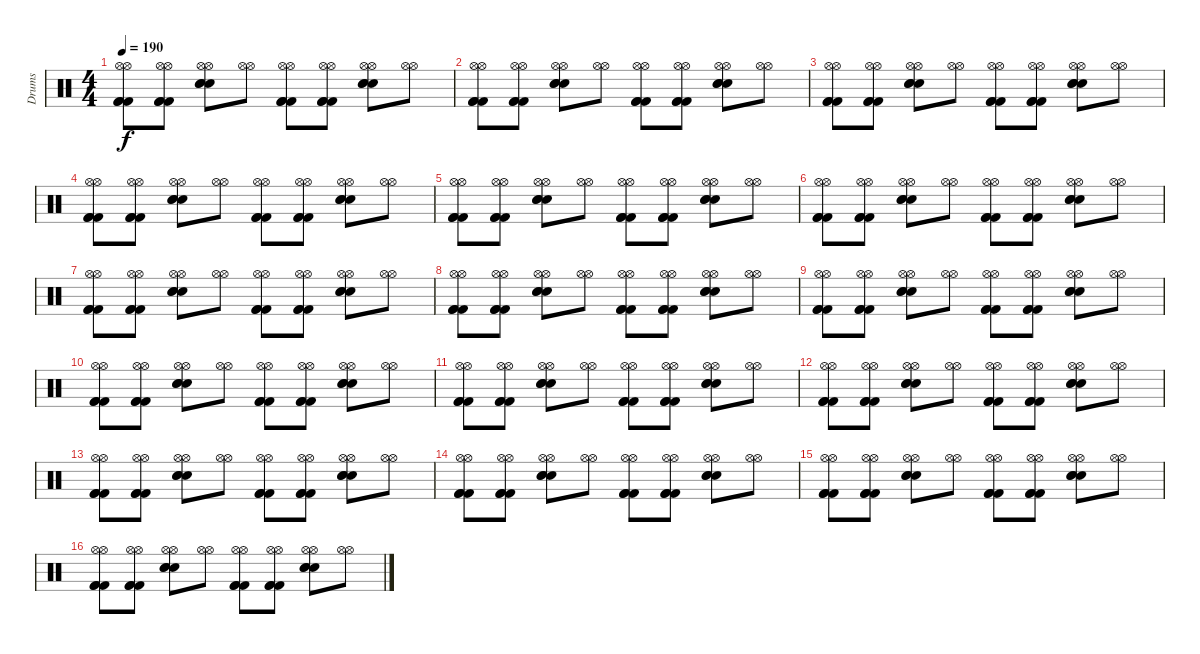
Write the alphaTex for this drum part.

\track ("Drums" "Drums") {instrument percussion}
\staff {score}
\articulation defaults
\ts (4 4)
\tempo 190
\clef neutral
\ks c
("Kick (hit) 2" "Kick (hit) 2" "Kick (hit) 2" "Hi-Hat (open)" "Hi-Hat (open)").8{dy f} ("Kick (hit) 2" "Kick (hit) 2" "Kick (hit) 2" "Hi-Hat (open)" "Hi-Hat (open)").8 ("Snare (hit) 2" "Snare (hit) 2" "Snare (hit) 2" "Hi-Hat (open)" "Hi-Hat (open)").8 ("Hi-Hat (open)" "Hi-Hat (open)").8 ("Kick (hit) 2" "Kick (hit) 2" "Kick (hit) 2" "Hi-Hat (open)" "Hi-Hat (open)").8 ("Kick (hit) 2" "Kick (hit) 2" "Kick (hit) 2" "Hi-Hat (open)" "Hi-Hat (open)").8 ("Snare (hit) 2" "Snare (hit) 2" "Snare (hit) 2" "Hi-Hat (open)" "Hi-Hat (open)").8 ("Hi-Hat (open)" "Hi-Hat (open)").8 |
("Kick (hit) 2" "Kick (hit) 2" "Kick (hit) 2" "Hi-Hat (open)" "Hi-Hat (open)").8 ("Kick (hit) 2" "Kick (hit) 2" "Kick (hit) 2" "Hi-Hat (open)" "Hi-Hat (open)").8 ("Snare (hit) 2" "Snare (hit) 2" "Snare (hit) 2" "Hi-Hat (open)" "Hi-Hat (open)").8 ("Hi-Hat (open)" "Hi-Hat (open)").8 ("Kick (hit) 2" "Kick (hit) 2" "Kick (hit) 2" "Hi-Hat (open)" "Hi-Hat (open)").8 ("Kick (hit) 2" "Kick (hit) 2" "Kick (hit) 2" "Hi-Hat (open)" "Hi-Hat (open)").8 ("Snare (hit) 2" "Snare (hit) 2" "Snare (hit) 2" "Hi-Hat (open)" "Hi-Hat (open)").8 ("Hi-Hat (open)" "Hi-Hat (open)").8 |
("Kick (hit) 2" "Kick (hit) 2" "Kick (hit) 2" "Hi-Hat (open)" "Hi-Hat (open)").8 ("Kick (hit) 2" "Kick (hit) 2" "Kick (hit) 2" "Hi-Hat (open)" "Hi-Hat (open)").8 ("Snare (hit) 2" "Snare (hit) 2" "Snare (hit) 2" "Hi-Hat (open)" "Hi-Hat (open)").8 ("Hi-Hat (open)" "Hi-Hat (open)").8 ("Kick (hit) 2" "Kick (hit) 2" "Kick (hit) 2" "Hi-Hat (open)" "Hi-Hat (open)").8 ("Kick (hit) 2" "Kick (hit) 2" "Kick (hit) 2" "Hi-Hat (open)" "Hi-Hat (open)").8 ("Snare (hit) 2" "Snare (hit) 2" "Snare (hit) 2" "Hi-Hat (open)" "Hi-Hat (open)").8 ("Hi-Hat (open)" "Hi-Hat (open)").8 |
("Kick (hit) 2" "Kick (hit) 2" "Kick (hit) 2" "Hi-Hat (open)" "Hi-Hat (open)").8 ("Kick (hit) 2" "Kick (hit) 2" "Kick (hit) 2" "Hi-Hat (open)" "Hi-Hat (open)").8 ("Snare (hit) 2" "Snare (hit) 2" "Snare (hit) 2" "Hi-Hat (open)" "Hi-Hat (open)").8 ("Hi-Hat (open)" "Hi-Hat (open)").8 ("Kick (hit) 2" "Kick (hit) 2" "Kick (hit) 2" "Hi-Hat (open)" "Hi-Hat (open)").8 ("Kick (hit) 2" "Kick (hit) 2" "Kick (hit) 2" "Hi-Hat (open)" "Hi-Hat (open)").8 ("Snare (hit) 2" "Snare (hit) 2" "Snare (hit) 2" "Hi-Hat (open)" "Hi-Hat (open)").8 ("Hi-Hat (open)" "Hi-Hat (open)").8 |
("Kick (hit) 2" "Kick (hit) 2" "Kick (hit) 2" "Hi-Hat (open)" "Hi-Hat (open)").8 ("Kick (hit) 2" "Kick (hit) 2" "Kick (hit) 2" "Hi-Hat (open)" "Hi-Hat (open)").8 ("Snare (hit) 2" "Snare (hit) 2" "Snare (hit) 2" "Hi-Hat (open)" "Hi-Hat (open)").8 ("Hi-Hat (open)" "Hi-Hat (open)").8 ("Kick (hit) 2" "Kick (hit) 2" "Kick (hit) 2" "Hi-Hat (open)" "Hi-Hat (open)").8 ("Kick (hit) 2" "Kick (hit) 2" "Kick (hit) 2" "Hi-Hat (open)" "Hi-Hat (open)").8 ("Snare (hit) 2" "Snare (hit) 2" "Snare (hit) 2" "Hi-Hat (open)" "Hi-Hat (open)").8 ("Hi-Hat (open)" "Hi-Hat (open)").8 |
("Kick (hit) 2" "Kick (hit) 2" "Kick (hit) 2" "Hi-Hat (open)" "Hi-Hat (open)").8 ("Kick (hit) 2" "Kick (hit) 2" "Kick (hit) 2" "Hi-Hat (open)" "Hi-Hat (open)").8 ("Snare (hit) 2" "Snare (hit) 2" "Snare (hit) 2" "Hi-Hat (open)" "Hi-Hat (open)").8 ("Hi-Hat (open)" "Hi-Hat (open)").8 ("Kick (hit) 2" "Kick (hit) 2" "Kick (hit) 2" "Hi-Hat (open)" "Hi-Hat (open)").8 ("Kick (hit) 2" "Kick (hit) 2" "Kick (hit) 2" "Hi-Hat (open)" "Hi-Hat (open)").8 ("Snare (hit) 2" "Snare (hit) 2" "Snare (hit) 2" "Hi-Hat (open)" "Hi-Hat (open)").8 ("Hi-Hat (open)" "Hi-Hat (open)").8 |
("Kick (hit) 2" "Kick (hit) 2" "Kick (hit) 2" "Hi-Hat (open)" "Hi-Hat (open)").8 ("Kick (hit) 2" "Kick (hit) 2" "Kick (hit) 2" "Hi-Hat (open)" "Hi-Hat (open)").8 ("Snare (hit) 2" "Snare (hit) 2" "Snare (hit) 2" "Hi-Hat (open)" "Hi-Hat (open)").8 ("Hi-Hat (open)" "Hi-Hat (open)").8 ("Kick (hit) 2" "Kick (hit) 2" "Kick (hit) 2" "Hi-Hat (open)" "Hi-Hat (open)").8 ("Kick (hit) 2" "Kick (hit) 2" "Kick (hit) 2" "Hi-Hat (open)" "Hi-Hat (open)").8 ("Snare (hit) 2" "Snare (hit) 2" "Snare (hit) 2" "Hi-Hat (open)" "Hi-Hat (open)").8 ("Hi-Hat (open)" "Hi-Hat (open)").8 |
("Kick (hit) 2" "Kick (hit) 2" "Kick (hit) 2" "Hi-Hat (open)" "Hi-Hat (open)").8 ("Kick (hit) 2" "Kick (hit) 2" "Kick (hit) 2" "Hi-Hat (open)" "Hi-Hat (open)").8 ("Snare (hit) 2" "Snare (hit) 2" "Snare (hit) 2" "Hi-Hat (open)" "Hi-Hat (open)").8 ("Hi-Hat (open)" "Hi-Hat (open)").8 ("Kick (hit) 2" "Kick (hit) 2" "Kick (hit) 2" "Hi-Hat (open)" "Hi-Hat (open)").8 ("Kick (hit) 2" "Kick (hit) 2" "Kick (hit) 2" "Hi-Hat (open)" "Hi-Hat (open)").8 ("Snare (hit) 2" "Snare (hit) 2" "Snare (hit) 2" "Hi-Hat (open)" "Hi-Hat (open)").8 ("Hi-Hat (open)" "Hi-Hat (open)").8 |
("Kick (hit) 2" "Kick (hit) 2" "Kick (hit) 2" "Hi-Hat (open)" "Hi-Hat (open)").8 ("Kick (hit) 2" "Kick (hit) 2" "Kick (hit) 2" "Hi-Hat (open)" "Hi-Hat (open)").8 ("Snare (hit) 2" "Snare (hit) 2" "Snare (hit) 2" "Hi-Hat (open)" "Hi-Hat (open)").8 ("Hi-Hat (open)" "Hi-Hat (open)").8 ("Kick (hit) 2" "Kick (hit) 2" "Kick (hit) 2" "Hi-Hat (open)" "Hi-Hat (open)").8 ("Kick (hit) 2" "Kick (hit) 2" "Kick (hit) 2" "Hi-Hat (open)" "Hi-Hat (open)").8 ("Snare (hit) 2" "Snare (hit) 2" "Snare (hit) 2" "Hi-Hat (open)" "Hi-Hat (open)").8 ("Hi-Hat (open)" "Hi-Hat (open)").8 |
("Kick (hit) 2" "Kick (hit) 2" "Kick (hit) 2" "Hi-Hat (open)" "Hi-Hat (open)").8 ("Kick (hit) 2" "Kick (hit) 2" "Kick (hit) 2" "Hi-Hat (open)" "Hi-Hat (open)").8 ("Snare (hit) 2" "Snare (hit) 2" "Snare (hit) 2" "Hi-Hat (open)" "Hi-Hat (open)").8 ("Hi-Hat (open)" "Hi-Hat (open)").8 ("Kick (hit) 2" "Kick (hit) 2" "Kick (hit) 2" "Hi-Hat (open)" "Hi-Hat (open)").8 ("Kick (hit) 2" "Kick (hit) 2" "Kick (hit) 2" "Hi-Hat (open)" "Hi-Hat (open)").8 ("Snare (hit) 2" "Snare (hit) 2" "Snare (hit) 2" "Hi-Hat (open)" "Hi-Hat (open)").8 ("Hi-Hat (open)" "Hi-Hat (open)").8 |
("Kick (hit) 2" "Kick (hit) 2" "Kick (hit) 2" "Hi-Hat (open)" "Hi-Hat (open)").8 ("Kick (hit) 2" "Kick (hit) 2" "Kick (hit) 2" "Hi-Hat (open)" "Hi-Hat (open)").8 ("Snare (hit) 2" "Snare (hit) 2" "Snare (hit) 2" "Hi-Hat (open)" "Hi-Hat (open)").8 ("Hi-Hat (open)" "Hi-Hat (open)").8 ("Kick (hit) 2" "Kick (hit) 2" "Kick (hit) 2" "Hi-Hat (open)" "Hi-Hat (open)").8 ("Kick (hit) 2" "Kick (hit) 2" "Kick (hit) 2" "Hi-Hat (open)" "Hi-Hat (open)").8 ("Snare (hit) 2" "Snare (hit) 2" "Snare (hit) 2" "Hi-Hat (open)" "Hi-Hat (open)").8 ("Hi-Hat (open)" "Hi-Hat (open)").8 |
("Kick (hit) 2" "Kick (hit) 2" "Kick (hit) 2" "Hi-Hat (open)" "Hi-Hat (open)").8 ("Kick (hit) 2" "Kick (hit) 2" "Kick (hit) 2" "Hi-Hat (open)" "Hi-Hat (open)").8 ("Snare (hit) 2" "Snare (hit) 2" "Snare (hit) 2" "Hi-Hat (open)" "Hi-Hat (open)").8 ("Hi-Hat (open)" "Hi-Hat (open)").8 ("Kick (hit) 2" "Kick (hit) 2" "Kick (hit) 2" "Hi-Hat (open)" "Hi-Hat (open)").8 ("Kick (hit) 2" "Kick (hit) 2" "Kick (hit) 2" "Hi-Hat (open)" "Hi-Hat (open)").8 ("Snare (hit) 2" "Snare (hit) 2" "Snare (hit) 2" "Hi-Hat (open)" "Hi-Hat (open)").8 ("Hi-Hat (open)" "Hi-Hat (open)").8 |
("Kick (hit) 2" "Kick (hit) 2" "Kick (hit) 2" "Hi-Hat (open)" "Hi-Hat (open)").8 ("Kick (hit) 2" "Kick (hit) 2" "Kick (hit) 2" "Hi-Hat (open)" "Hi-Hat (open)").8 ("Snare (hit) 2" "Snare (hit) 2" "Snare (hit) 2" "Hi-Hat (open)" "Hi-Hat (open)").8 ("Hi-Hat (open)" "Hi-Hat (open)").8 ("Kick (hit) 2" "Kick (hit) 2" "Kick (hit) 2" "Hi-Hat (open)" "Hi-Hat (open)").8 ("Kick (hit) 2" "Kick (hit) 2" "Kick (hit) 2" "Hi-Hat (open)" "Hi-Hat (open)").8 ("Snare (hit) 2" "Snare (hit) 2" "Snare (hit) 2" "Hi-Hat (open)" "Hi-Hat (open)").8 ("Hi-Hat (open)" "Hi-Hat (open)").8 |
("Kick (hit) 2" "Kick (hit) 2" "Kick (hit) 2" "Hi-Hat (open)" "Hi-Hat (open)").8 ("Kick (hit) 2" "Kick (hit) 2" "Kick (hit) 2" "Hi-Hat (open)" "Hi-Hat (open)").8 ("Snare (hit) 2" "Snare (hit) 2" "Snare (hit) 2" "Hi-Hat (open)" "Hi-Hat (open)").8 ("Hi-Hat (open)" "Hi-Hat (open)").8 ("Kick (hit) 2" "Kick (hit) 2" "Kick (hit) 2" "Hi-Hat (open)" "Hi-Hat (open)").8 ("Kick (hit) 2" "Kick (hit) 2" "Kick (hit) 2" "Hi-Hat (open)" "Hi-Hat (open)").8 ("Snare (hit) 2" "Snare (hit) 2" "Snare (hit) 2" "Hi-Hat (open)" "Hi-Hat (open)").8 ("Hi-Hat (open)" "Hi-Hat (open)").8 |
("Kick (hit) 2" "Kick (hit) 2" "Kick (hit) 2" "Hi-Hat (open)" "Hi-Hat (open)").8 ("Kick (hit) 2" "Kick (hit) 2" "Kick (hit) 2" "Hi-Hat (open)" "Hi-Hat (open)").8 ("Snare (hit) 2" "Snare (hit) 2" "Snare (hit) 2" "Hi-Hat (open)" "Hi-Hat (open)").8 ("Hi-Hat (open)" "Hi-Hat (open)").8 ("Kick (hit) 2" "Kick (hit) 2" "Kick (hit) 2" "Hi-Hat (open)" "Hi-Hat (open)").8 ("Kick (hit) 2" "Kick (hit) 2" "Kick (hit) 2" "Hi-Hat (open)" "Hi-Hat (open)").8 ("Snare (hit) 2" "Snare (hit) 2" "Snare (hit) 2" "Hi-Hat (open)" "Hi-Hat (open)").8 ("Hi-Hat (open)" "Hi-Hat (open)").8 |
("Kick (hit) 2" "Kick (hit) 2" "Kick (hit) 2" "Hi-Hat (open)" "Hi-Hat (open)").8 ("Kick (hit) 2" "Kick (hit) 2" "Kick (hit) 2" "Hi-Hat (open)" "Hi-Hat (open)").8 ("Snare (hit) 2" "Snare (hit) 2" "Snare (hit) 2" "Hi-Hat (open)" "Hi-Hat (open)").8 ("Hi-Hat (open)" "Hi-Hat (open)").8 ("Kick (hit) 2" "Kick (hit) 2" "Kick (hit) 2" "Hi-Hat (open)" "Hi-Hat (open)").8 ("Kick (hit) 2" "Kick (hit) 2" "Kick (hit) 2" "Hi-Hat (open)" "Hi-Hat (open)").8 ("Snare (hit) 2" "Snare (hit) 2" "Snare (hit) 2" "Hi-Hat (open)" "Hi-Hat (open)").8 ("Hi-Hat (open)" "Hi-Hat (open)").8
